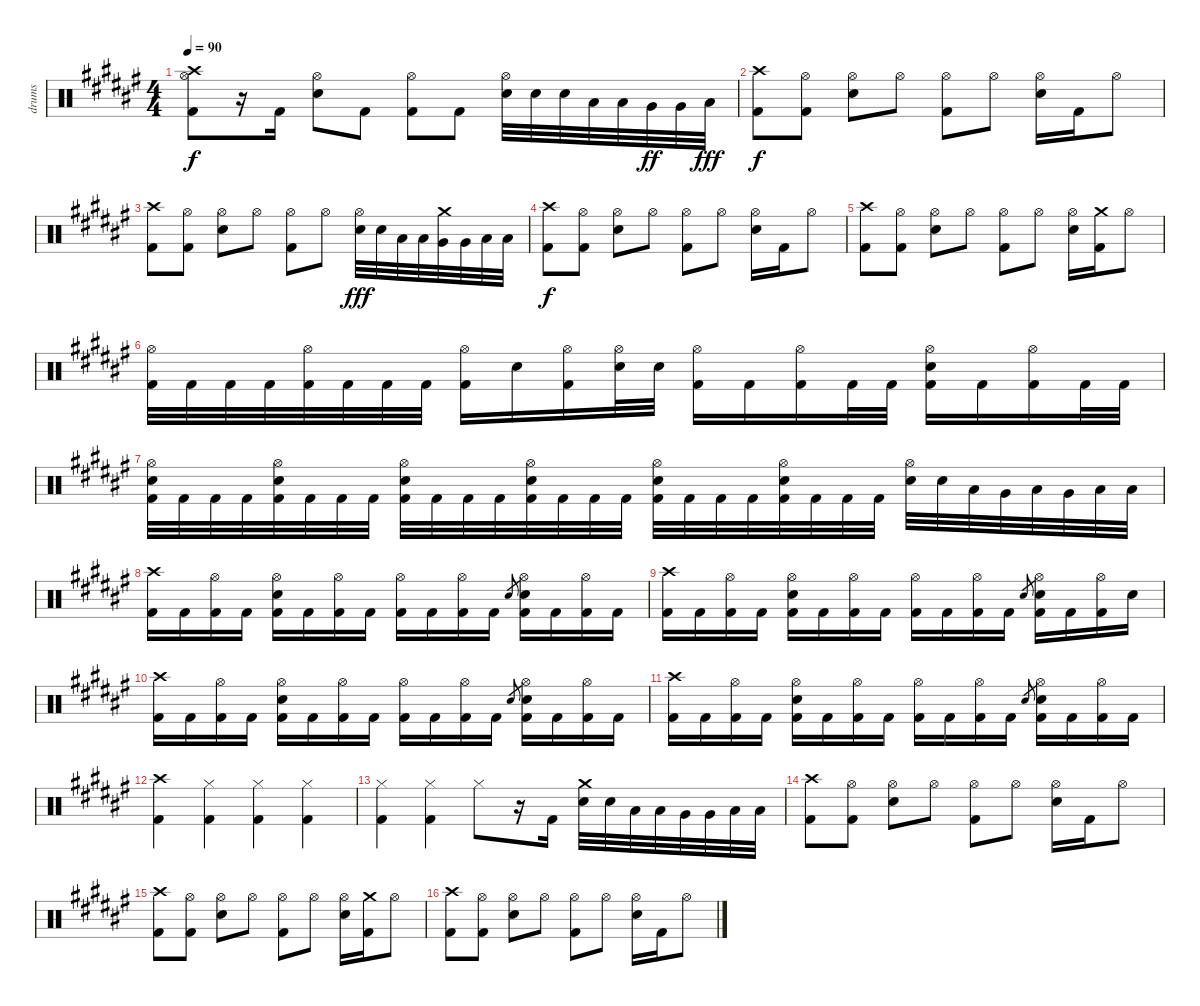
\track ("drums" "drums") {instrument percussion}
\staff {score}
\articulation defaults
\ts (4 4)
\tempo 90
\clef neutral
\ks d#minor
("Crash high (hit)" "Hi-Hat (open)" "Kick (hit) 2").8{dy f} r.16 "Kick (hit) 2".16 ("Hi-Hat (open)" "Electric Snare (hit)").8 "Kick (hit) 2".8 ("Hi-Hat (open)" "Kick (hit) 2").8 "Kick (hit) 2".8 ("Hi-Hat (open)" "Electric Snare (hit)").32 "Electric Snare (hit)".32 "Electric Snare (hit)".32 "Low Tom (hit)".32 "Low Tom (hit)".32 "Very Low Tom (hit)".32{dy ff} "Very Low Tom (hit)".32 "Low Floor Tom (hit)".32{dy fff} |
("Crash high (hit)" "Kick (hit) 2").8{dy f} ("Hi-Hat (open)" "Kick (hit) 2").8 ("Hi-Hat (open)" "Electric Snare (hit)").8 "Hi-Hat (open)".8 ("Hi-Hat (open)" "Kick (hit) 2").8 "Hi-Hat (open)".8 ("Hi-Hat (open)" "Electric Snare (hit)").16 "Kick (hit) 2".16 "Hi-Hat (open)".8 |
("Crash high (hit)" "Kick (hit) 2").8 ("Hi-Hat (open)" "Kick (hit) 2").8 ("Hi-Hat (open)" "Electric Snare (hit)").8 "Hi-Hat (open)".8 ("Hi-Hat (open)" "Kick (hit) 2").8 "Hi-Hat (open)".8 ("Hi-Hat (open)" "Electric Snare (hit)").32{dy fff} "Electric Snare (hit)".32 "Low Tom (hit)".32 "Low Tom (hit)".32 ("Crash medium (hit)" "Very Low Tom (hit)").32 "Very Low Tom (hit)".32 "Low Floor Tom (hit)".32 "Low Floor Tom (hit)".32 |
("Crash high (hit)" "Kick (hit) 2").8{dy f} ("Hi-Hat (open)" "Kick (hit) 2").8 ("Hi-Hat (open)" "Electric Snare (hit)").8 "Hi-Hat (open)".8 ("Hi-Hat (open)" "Kick (hit) 2").8 "Hi-Hat (open)".8 ("Hi-Hat (open)" "Electric Snare (hit)").16 "Kick (hit) 2".16 "Hi-Hat (open)".8 |
("Crash high (hit)" "Kick (hit) 2").8 ("Hi-Hat (open)" "Kick (hit) 2").8 ("Hi-Hat (open)" "Electric Snare (hit)").8 "Hi-Hat (open)".8 ("Hi-Hat (open)" "Kick (hit) 2").8 "Hi-Hat (open)".8 ("Hi-Hat (open)" "Electric Snare (hit)").16 ("Crash medium (hit)" "Kick (hit) 2").16 "Hi-Hat (open)".8 |
("Hi-Hat (open)" "Kick (hit) 2").32 "Kick (hit) 2".32 "Kick (hit) 2".32 "Kick (hit) 2".32 ("Hi-Hat (open)" "Kick (hit) 2").32 "Kick (hit) 2".32 "Kick (hit) 2".32 "Kick (hit) 2".32 ("Hi-Hat (open)" "Kick (hit) 2").16 "Electric Snare (hit)".16 ("Hi-Hat (open)" "Kick (hit) 2").16 ("Hi-Hat (open)" "Electric Snare (hit)").32 "Electric Snare (hit)".32 ("Hi-Hat (open)" "Kick (hit) 2").16 "Kick (hit) 2".16 ("Hi-Hat (open)" "Kick (hit) 2").16 "Kick (hit) 2".32 "Kick (hit) 2".32 ("Hi-Hat (open)" "Electric Snare (hit)" "Kick (hit) 2").16 "Kick (hit) 2".16 ("Hi-Hat (open)" "Kick (hit) 2").16 "Kick (hit) 2".32 "Kick (hit) 2".32 |
("Hi-Hat (open)" "Electric Snare (hit)" "Kick (hit) 2").32 "Kick (hit) 2".32 "Kick (hit) 2".32 "Kick (hit) 2".32 ("Hi-Hat (open)" "Electric Snare (hit)" "Kick (hit) 2").32 "Kick (hit) 2".32 "Kick (hit) 2".32 "Kick (hit) 2".32 ("Hi-Hat (open)" "Electric Snare (hit)" "Kick (hit) 2").32 "Kick (hit) 2".32 "Kick (hit) 2".32 "Kick (hit) 2".32 ("Hi-Hat (open)" "Electric Snare (hit)" "Kick (hit) 2").32 "Kick (hit) 2".32 "Kick (hit) 2".32 "Kick (hit) 2".32 ("Hi-Hat (open)" "Electric Snare (hit)" "Kick (hit) 2").32 "Kick (hit) 2".32 "Kick (hit) 2".32 "Kick (hit) 2".32 ("Hi-Hat (open)" "Electric Snare (hit)" "Kick (hit) 2").32 "Kick (hit) 2".32 "Kick (hit) 2".32 "Kick (hit) 2".32 ("Hi-Hat (open)" "Electric Snare (hit)").32 "Electric Snare (hit)".32 "Low Tom (hit)".32 "Very Low Tom (hit)".32 "Low Tom (hit)".32 "Very Low Tom (hit)".32 "Low Floor Tom (hit)".32 "Low Floor Tom (hit)".32 |
("Crash high (hit)" "Kick (hit) 2").16 "Kick (hit) 2".16 ("Hi-Hat (open)" "Kick (hit) 2").16 "Kick (hit) 2".16 ("Hi-Hat (open)" "Electric Snare (hit)" "Kick (hit) 2").16 "Kick (hit) 2".16 ("Hi-Hat (open)" "Kick (hit) 2").16 "Kick (hit) 2".16 ("Hi-Hat (open)" "Kick (hit) 2").16 "Kick (hit) 2".16 ("Hi-Hat (open)" "Kick (hit) 2").16 "Kick (hit) 2".16 "Electric Snare (hit)".8{gr} ("Hi-Hat (open)" "Electric Snare (hit)" "Kick (hit) 2").16 "Kick (hit) 2".16 ("Hi-Hat (open)" "Kick (hit) 2").16 "Kick (hit) 2".16 |
("Crash high (hit)" "Kick (hit) 2").16 "Kick (hit) 2".16 ("Hi-Hat (open)" "Kick (hit) 2").16 "Kick (hit) 2".16 ("Hi-Hat (open)" "Electric Snare (hit)" "Kick (hit) 2").16 "Kick (hit) 2".16 ("Hi-Hat (open)" "Kick (hit) 2").16 "Kick (hit) 2".16 ("Hi-Hat (open)" "Kick (hit) 2").16 "Kick (hit) 2".16 ("Hi-Hat (open)" "Kick (hit) 2").16 "Kick (hit) 2".16 "Electric Snare (hit)".8{gr} ("Hi-Hat (open)" "Electric Snare (hit)" "Kick (hit) 2").16 "Kick (hit) 2".16 ("Hi-Hat (open)" "Kick (hit) 2").16 "Electric Snare (hit)".16 |
("Crash high (hit)" "Kick (hit) 2").16 "Kick (hit) 2".16 ("Hi-Hat (open)" "Kick (hit) 2").16 "Kick (hit) 2".16 ("Hi-Hat (open)" "Electric Snare (hit)" "Kick (hit) 2").16 "Kick (hit) 2".16 ("Hi-Hat (open)" "Kick (hit) 2").16 "Kick (hit) 2".16 ("Hi-Hat (open)" "Kick (hit) 2").16 "Kick (hit) 2".16 ("Hi-Hat (open)" "Kick (hit) 2").16 "Kick (hit) 2".16 "Electric Snare (hit)".8{gr} ("Hi-Hat (open)" "Electric Snare (hit)" "Kick (hit) 2").16 "Kick (hit) 2".16 ("Hi-Hat (open)" "Kick (hit) 2").16 "Kick (hit) 2".16 |
("Crash high (hit)" "Kick (hit) 2").16 "Kick (hit) 2".16 ("Hi-Hat (open)" "Kick (hit) 2").16 "Kick (hit) 2".16 ("Hi-Hat (open)" "Electric Snare (hit)" "Kick (hit) 2").16 "Kick (hit) 2".16 ("Hi-Hat (open)" "Kick (hit) 2").16 "Kick (hit) 2".16 ("Hi-Hat (open)" "Kick (hit) 2").16 "Kick (hit) 2".16 ("Hi-Hat (open)" "Kick (hit) 2").16 "Kick (hit) 2".16 "Electric Snare (hit)".8{gr} ("Hi-Hat (open)" "Electric Snare (hit)" "Kick (hit) 2").16 "Kick (hit) 2".16 ("Hi-Hat (open)" "Kick (hit) 2").16 "Kick (hit) 2".16 |
("Crash high (hit)" "Kick (hit) 2").4 ("Hi-Hat (closed)" "Kick (hit) 2").4 ("Hi-Hat (closed)" "Kick (hit) 2").4 ("Hi-Hat (closed)" "Kick (hit) 2").4 |
("Hi-Hat (closed)" "Kick (hit) 2").4 ("Hi-Hat (closed)" "Kick (hit) 2").4 "Hi-Hat (closed)".8 r.16 "Kick (hit) 2".16 ("Crash medium (hit)" "Electric Snare (hit)").32 "Electric Snare (hit)".32 "Low Tom (hit)".32 "Low Tom (hit)".32 "Very Low Tom (hit)".32 "Very Low Tom (hit)".32 "Low Floor Tom (hit)".32 "Low Floor Tom (hit)".32 |
("Crash high (hit)" "Kick (hit) 2").8 ("Hi-Hat (open)" "Kick (hit) 2").8 ("Hi-Hat (open)" "Electric Snare (hit)").8 "Hi-Hat (open)".8 ("Hi-Hat (open)" "Kick (hit) 2").8 "Hi-Hat (open)".8 ("Hi-Hat (open)" "Electric Snare (hit)").16 "Kick (hit) 2".16 "Hi-Hat (open)".8 |
("Crash high (hit)" "Kick (hit) 2").8 ("Hi-Hat (open)" "Kick (hit) 2").8 ("Hi-Hat (open)" "Electric Snare (hit)").8 "Hi-Hat (open)".8 ("Hi-Hat (open)" "Kick (hit) 2").8 "Hi-Hat (open)".8 ("Hi-Hat (open)" "Electric Snare (hit)").16 ("Crash medium (hit)" "Kick (hit) 2").16 "Hi-Hat (open)".8 |
("Crash high (hit)" "Kick (hit) 2").8 ("Hi-Hat (open)" "Kick (hit) 2").8 ("Hi-Hat (open)" "Electric Snare (hit)").8 "Hi-Hat (open)".8 ("Hi-Hat (open)" "Kick (hit) 2").8 "Hi-Hat (open)".8 ("Hi-Hat (open)" "Electric Snare (hit)").16 "Kick (hit) 2".16 "Hi-Hat (open)".8
